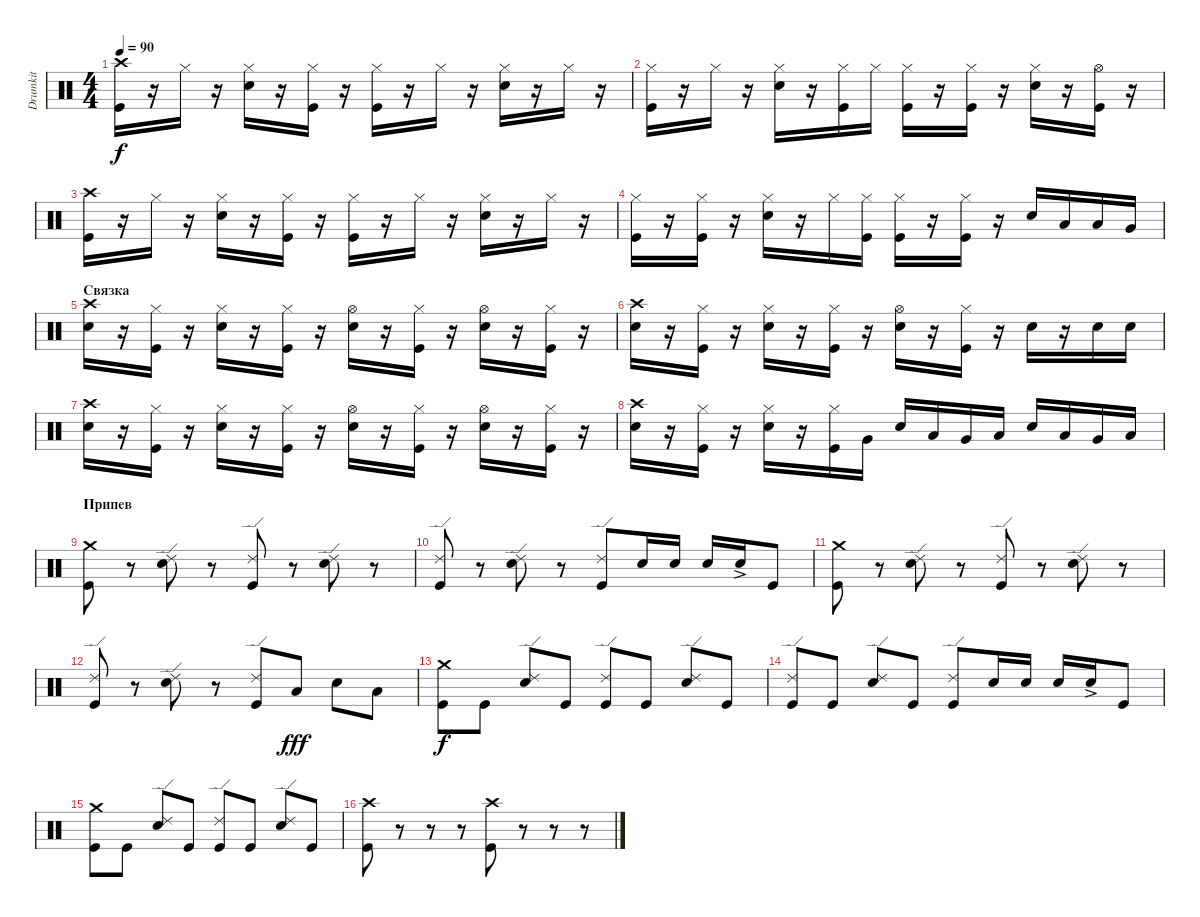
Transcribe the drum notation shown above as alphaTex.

\track ("Drumkit" "Drumkit") {instrument percussion}
\staff {score}
\articulation defaults
\ts (4 4)
\tempo 90
\clef neutral
\ks c
("Kick (hit)" "Crash high (hit)").16{dy f} r.16 "Hi-Hat (closed)".16 r.16 ("Hi-Hat (closed)" "Snare (hit) 2").16 r.16 ("Hi-Hat (closed)" "Kick (hit)").16 r.16 ("Hi-Hat (closed)" "Kick (hit)").16 r.16 "Hi-Hat (closed)".16 r.16 ("Hi-Hat (closed)" "Snare (hit) 2").16 r.16 "Hi-Hat (closed)".16 r.16 |
("Hi-Hat (closed)" "Kick (hit)").16 r.16 "Hi-Hat (closed)".16 r.16 ("Hi-Hat (closed)" "Snare (hit) 2").16 r.16 ("Hi-Hat (closed)" "Kick (hit)").16 "Hi-Hat (closed)".16 ("Hi-Hat (closed)" "Kick (hit)").16 r.16 ("Hi-Hat (closed)" "Kick (hit)").16 r.16 ("Hi-Hat (closed)" "Snare (hit) 2").16 r.16 ("Hi-Hat (open)" "Kick (hit)").16 r.16 |
("Kick (hit)" "Crash high (hit)").16 r.16 "Hi-Hat (closed)".16 r.16 ("Hi-Hat (closed)" "Snare (hit) 2").16 r.16 ("Hi-Hat (closed)" "Kick (hit)").16 r.16 ("Hi-Hat (closed)" "Kick (hit)").16 r.16 "Hi-Hat (closed)".16 r.16 ("Hi-Hat (closed)" "Snare (hit) 2").16 r.16 "Hi-Hat (closed)".16 r.16 |
("Hi-Hat (closed)" "Kick (hit)").16 r.16 ("Hi-Hat (closed)" "Kick (hit)").16 r.16 ("Hi-Hat (closed)" "Snare (hit) 2").16 r.16 "Hi-Hat (closed)".16 ("Kick (hit)" "Hi-Hat (closed)").16 ("Hi-Hat (closed)" "Kick (hit)").16 r.16 ("Hi-Hat (closed)" "Kick (hit)").16 r.16 "Snare (hit) 2".16 "Low Tom (hit)".16 "Low Floor Tom (hit)".16 "Very Low Tom (hit)".16 |
\section ("" "Связка")
("Crash high (hit)" "Snare (hit) 2").16 r.16 ("Hi-Hat (closed)" "Kick (hit)").16 r.16 ("Hi-Hat (closed)" "Snare (hit) 2").16 r.16 ("Hi-Hat (closed)" "Kick (hit)").16 r.16 ("Hi-Hat (open)" "Snare (hit) 2").16 r.16 ("Hi-Hat (closed)" "Kick (hit)").16 r.16 ("Hi-Hat (open)" "Snare (hit) 2").16 r.16 ("Hi-Hat (closed)" "Kick (hit)").16 r.16 |
("Crash high (hit)" "Snare (hit) 2").16 r.16 ("Hi-Hat (closed)" "Kick (hit)").16 r.16 ("Hi-Hat (closed)" "Snare (hit) 2").16 r.16 ("Hi-Hat (closed)" "Kick (hit)").16 r.16 ("Hi-Hat (open)" "Snare (hit) 2").16 r.16 ("Hi-Hat (closed)" "Kick (hit)").16 r.16 "Snare (hit) 2".16 r.16 "Snare (hit) 2".16 "Snare (hit) 2".16 |
("Crash high (hit)" "Snare (hit) 2").16 r.16 ("Hi-Hat (closed)" "Kick (hit)").16 r.16 ("Hi-Hat (closed)" "Snare (hit) 2").16 r.16 ("Hi-Hat (closed)" "Kick (hit)").16 r.16 ("Hi-Hat (open)" "Snare (hit) 2").16 r.16 ("Hi-Hat (closed)" "Kick (hit)").16 r.16 ("Hi-Hat (open)" "Snare (hit) 2").16 r.16 ("Hi-Hat (closed)" "Kick (hit)").16 r.16 |
("Crash high (hit)" "Snare (hit) 2").16 r.16 ("Hi-Hat (closed)" "Kick (hit)").16 r.16 ("Hi-Hat (closed)" "Snare (hit) 2").16 r.16 ("Hi-Hat (closed)" "Kick (hit)").16 "Very Low Tom (hit)".16 "Snare (hit) 2".16 "Low Tom (hit)".16 "Very Low Tom (hit)".16 "Low Tom (hit)".16 "Snare (hit) 2".16 "Low Tom (hit)".16 "Very Low Tom (hit)".16 "Low Floor Tom (hit)".16 |
\section ("" "Припев")
("Kick (hit)" "Crash medium (hit)").8 r.8 ("Snare (hit) 2" "Ride (edge) 2").8 r.8 ("Kick (hit)" "Ride (edge) 2").8 r.8 ("Snare (hit) 2" "Ride (edge) 2").8 r.8 |
("Kick (hit)" "Ride (edge) 2").8 r.8 ("Snare (hit) 2" "Ride (edge) 2").8 r.8 ("Kick (hit)" "Ride (edge) 2").8 "Snare (hit) 2".16 "Snare (hit) 2".16 "Snare (hit) 2".16 "Snare (hit) 2"{ac}.16 "Kick (hit)".8 |
("Kick (hit)" "Crash medium (hit)").8 r.8 ("Snare (hit) 2" "Ride (edge) 2").8 r.8 ("Kick (hit)" "Ride (edge) 2").8 r.8 ("Snare (hit) 2" "Ride (edge) 2").8 r.8 |
("Kick (hit)" "Ride (edge) 2").8 r.8 ("Snare (hit) 2" "Ride (edge) 2").8 r.8 ("Kick (hit)" "Ride (edge) 2").8 "Low Tom (hit)".8{dy fff} "Snare (hit) 2".8 "Low Tom (hit)".8 |
("Kick (hit)" "Crash medium (hit)").8{dy f} "Kick (hit)".8 ("Snare (hit) 2" "Ride (edge) 2").8 "Kick (hit)".8 ("Kick (hit)" "Ride (edge) 2").8 "Kick (hit)".8 ("Snare (hit) 2" "Ride (edge) 2").8 "Kick (hit)".8 |
("Kick (hit)" "Ride (edge) 2").8 "Kick (hit)".8 ("Snare (hit) 2" "Ride (edge) 2").8 "Kick (hit)".8 ("Kick (hit)" "Ride (edge) 2").8 "Snare (hit) 2".16 "Snare (hit) 2".16 "Snare (hit) 2".16 "Snare (hit) 2"{ac}.16 "Kick (hit)".8 |
("Kick (hit)" "Crash medium (hit)").8 "Kick (hit)".8 ("Snare (hit) 2" "Ride (edge) 2").8 "Kick (hit)".8 ("Kick (hit)" "Ride (edge) 2").8 "Kick (hit)".8 ("Snare (hit) 2" "Ride (edge) 2").8 "Kick (hit)".8 |
("Kick (hit)" "Crash high (hit)").8 r.8 r.8 r.8 ("Kick (hit)" "Crash high (hit)").8 r.8 r.8 r.8
